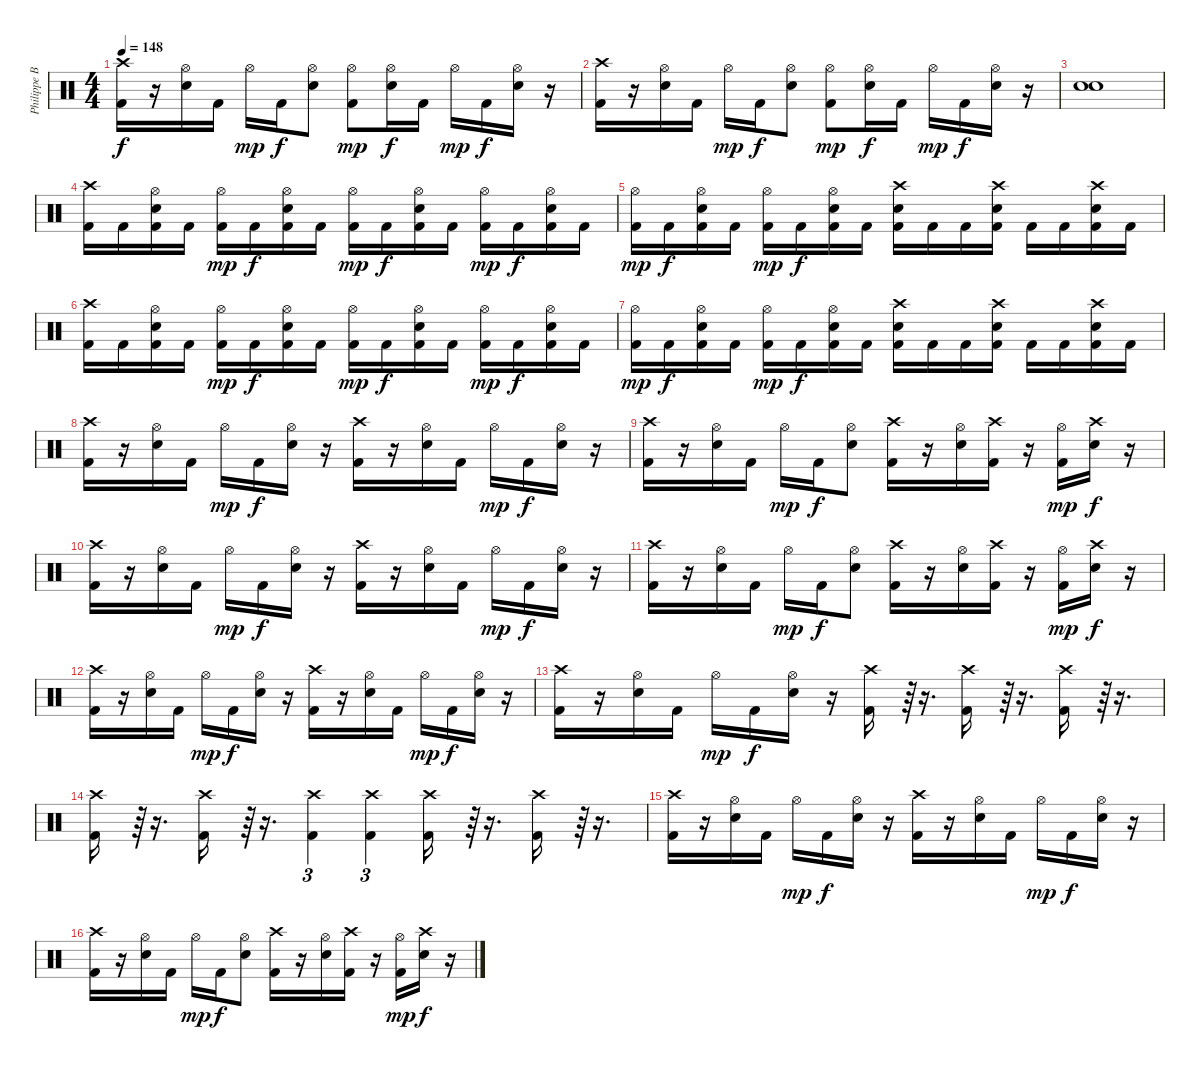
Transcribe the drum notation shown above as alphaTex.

\track ("Philippe Borda" "Philippe B") {instrument percussion}
\staff {score}
\articulation defaults
\ts (4 4)
\tempo 148
\clef neutral
\ks c
("Crash high (hit)" "Kick (hit) 2").16{dy f} r.16 ("Snare (hit) 2" "Hi-Hat (open)").16 "Kick (hit) 2".16 "Hi-Hat (open)".16{dy mp} "Kick (hit) 2".16{dy f} ("Snare (hit) 2" "Hi-Hat (open)").8 ("Kick (hit) 2" "Hi-Hat (open)").8{dy mp} ("Snare (hit) 2" "Hi-Hat (open)").16{dy f} "Kick (hit) 2".16 "Hi-Hat (open)".16{dy mp} "Kick (hit) 2".16{dy f} ("Snare (hit) 2" "Hi-Hat (open)").16 r.16 |
("Crash high (hit)" "Kick (hit) 2").16 r.16 ("Snare (hit) 2" "Hi-Hat (open)").16 "Kick (hit) 2".16 "Hi-Hat (open)".16{dy mp} "Kick (hit) 2".16{dy f} ("Snare (hit) 2" "Hi-Hat (open)").8 ("Kick (hit) 2" "Hi-Hat (open)").8{dy mp} ("Snare (hit) 2" "Hi-Hat (open)").16{dy f} "Kick (hit) 2".16 "Hi-Hat (open)".16{dy mp} "Kick (hit) 2".16{dy f} ("Snare (hit) 2" "Hi-Hat (open)").16 r.16 |
("Snare (hit) 2" "Snare (hit) 2").1 |
("Crash high (hit)" "Kick (hit) 2").16 "Kick (hit) 2".16 ("Kick (hit) 2" "Snare (hit) 2" "Hi-Hat (open)").16 "Kick (hit) 2".16 ("Kick (hit) 2" "Hi-Hat (open)").16{dy mp} "Kick (hit) 2".16{dy f} ("Kick (hit) 2" "Snare (hit) 2" "Hi-Hat (open)").16 "Kick (hit) 2".16 ("Kick (hit) 2" "Hi-Hat (open)").16{dy mp} "Kick (hit) 2".16{dy f} ("Kick (hit) 2" "Snare (hit) 2" "Hi-Hat (open)").16 "Kick (hit) 2".16 ("Kick (hit) 2" "Hi-Hat (open)").16{dy mp} "Kick (hit) 2".16{dy f} ("Kick (hit) 2" "Snare (hit) 2" "Hi-Hat (open)").16 "Kick (hit) 2".16 |
("Kick (hit) 2" "Hi-Hat (open)").16{dy mp} "Kick (hit) 2".16{dy f} ("Kick (hit) 2" "Snare (hit) 2" "Hi-Hat (open)").16 "Kick (hit) 2".16 ("Kick (hit) 2" "Hi-Hat (open)").16{dy mp} "Kick (hit) 2".16{dy f} ("Kick (hit) 2" "Hi-Hat (open)" "Snare (hit) 2").16 "Kick (hit) 2".16 ("Crash high (hit)" "Kick (hit) 2" "Snare (hit) 2").16 "Kick (hit) 2".16 "Kick (hit) 2".16 ("Crash high (hit)" "Kick (hit) 2" "Snare (hit) 2").16 "Kick (hit) 2".16 "Kick (hit) 2".16 ("Crash high (hit)" "Kick (hit) 2" "Snare (hit) 2").16 "Kick (hit) 2".16 |
("Crash high (hit)" "Kick (hit) 2").16 "Kick (hit) 2".16 ("Kick (hit) 2" "Snare (hit) 2" "Hi-Hat (open)").16 "Kick (hit) 2".16 ("Kick (hit) 2" "Hi-Hat (open)").16{dy mp} "Kick (hit) 2".16{dy f} ("Kick (hit) 2" "Snare (hit) 2" "Hi-Hat (open)").16 "Kick (hit) 2".16 ("Kick (hit) 2" "Hi-Hat (open)").16{dy mp} "Kick (hit) 2".16{dy f} ("Kick (hit) 2" "Snare (hit) 2" "Hi-Hat (open)").16 "Kick (hit) 2".16 ("Kick (hit) 2" "Hi-Hat (open)").16{dy mp} "Kick (hit) 2".16{dy f} ("Kick (hit) 2" "Snare (hit) 2" "Hi-Hat (open)").16 "Kick (hit) 2".16 |
("Kick (hit) 2" "Hi-Hat (open)").16{dy mp} "Kick (hit) 2".16{dy f} ("Kick (hit) 2" "Snare (hit) 2" "Hi-Hat (open)").16 "Kick (hit) 2".16 ("Kick (hit) 2" "Hi-Hat (open)").16{dy mp} "Kick (hit) 2".16{dy f} ("Kick (hit) 2" "Hi-Hat (open)" "Snare (hit) 2").16 "Kick (hit) 2".16 ("Crash high (hit)" "Kick (hit) 2" "Snare (hit) 2").16 "Kick (hit) 2".16 "Kick (hit) 2".16 ("Crash high (hit)" "Kick (hit) 2" "Snare (hit) 2").16 "Kick (hit) 2".16 "Kick (hit) 2".16 ("Crash high (hit)" "Kick (hit) 2" "Snare (hit) 2").16 "Kick (hit) 2".16 |
("Crash high (hit)" "Kick (hit) 2").16 r.16 ("Hi-Hat (open)" "Snare (hit) 2").16 "Kick (hit) 2".16 "Hi-Hat (open)".16{dy mp} "Kick (hit) 2".16{dy f} ("Hi-Hat (open)" "Snare (hit) 2").16 r.16 ("Crash high (hit)" "Kick (hit) 2").16 r.16 ("Hi-Hat (open)" "Snare (hit) 2").16 "Kick (hit) 2".16 "Hi-Hat (open)".16{dy mp} "Kick (hit) 2".16{dy f} ("Hi-Hat (open)" "Snare (hit) 2").16 r.16 |
("Crash high (hit)" "Kick (hit) 2").16 r.16 ("Hi-Hat (open)" "Snare (hit) 2").16 "Kick (hit) 2".16 "Hi-Hat (open)".16{dy mp} "Kick (hit) 2".16{dy f} ("Hi-Hat (open)" "Snare (hit) 2").8 ("Crash high (hit)" "Kick (hit) 2").16 r.16 ("Hi-Hat (open)" "Snare (hit) 2").16 ("Crash high (hit)" "Kick (hit) 2").16 r.16 ("Hi-Hat (open)" "Kick (hit) 2").16{dy mp} ("Crash high (hit)" "Snare (hit) 2").16{dy f} r.16 |
("Crash high (hit)" "Kick (hit) 2").16 r.16 ("Hi-Hat (open)" "Snare (hit) 2").16 "Kick (hit) 2".16 "Hi-Hat (open)".16{dy mp} "Kick (hit) 2".16{dy f} ("Hi-Hat (open)" "Snare (hit) 2").16 r.16 ("Crash high (hit)" "Kick (hit) 2").16 r.16 ("Hi-Hat (open)" "Snare (hit) 2").16 "Kick (hit) 2".16 "Hi-Hat (open)".16{dy mp} "Kick (hit) 2".16{dy f} ("Hi-Hat (open)" "Snare (hit) 2").16 r.16 |
("Crash high (hit)" "Kick (hit) 2").16 r.16 ("Hi-Hat (open)" "Snare (hit) 2").16 "Kick (hit) 2".16 "Hi-Hat (open)".16{dy mp} "Kick (hit) 2".16{dy f} ("Hi-Hat (open)" "Snare (hit) 2").8 ("Crash high (hit)" "Kick (hit) 2").16 r.16 ("Hi-Hat (open)" "Snare (hit) 2").16 ("Crash high (hit)" "Kick (hit) 2").16 r.16 ("Hi-Hat (open)" "Kick (hit) 2").16{dy mp} ("Crash high (hit)" "Snare (hit) 2").16{dy f} r.16 |
("Crash high (hit)" "Kick (hit) 2").16 r.16 ("Hi-Hat (open)" "Snare (hit) 2").16 "Kick (hit) 2".16 "Hi-Hat (open)".16{dy mp} "Kick (hit) 2".16{dy f} ("Hi-Hat (open)" "Snare (hit) 2").16 r.16 ("Crash high (hit)" "Kick (hit) 2").16 r.16 ("Hi-Hat (open)" "Snare (hit) 2").16 "Kick (hit) 2".16 "Hi-Hat (open)".16{dy mp} "Kick (hit) 2".16{dy f} ("Hi-Hat (open)" "Snare (hit) 2").16 r.16 |
("Crash high (hit)" "Kick (hit) 2").16 r.16 ("Snare (hit) 2" "Hi-Hat (open)").16 "Kick (hit) 2".16 "Hi-Hat (open)".16{dy mp} "Kick (hit) 2".16{dy f} ("Snare (hit) 2" "Hi-Hat (open)").16 r.16 ("Crash high (hit)" "Kick (hit) 2").16 r.64{tu (3 2)} r.16{d} ("Crash high (hit)" "Kick (hit) 2").16 r.64{tu (3 2)} r.16{d} ("Crash high (hit)" "Kick (hit) 2").16 r.64{tu (3 2)} r.16{d} |
("Crash high (hit)" "Kick (hit) 2").16 r.64{tu (3 2)} r.16{d} ("Crash high (hit)" "Kick (hit) 2").16 r.64{tu (3 2)} r.16{d} ("Crash high (hit)" "Kick (hit) 2").4{tu (3 2)} ("Crash high (hit)" "Kick (hit) 2").4{tu (3 2)} ("Crash high (hit)" "Kick (hit) 2").16 r.64{tu (3 2)} r.16{d} ("Crash high (hit)" "Kick (hit) 2").16 r.64{tu (3 2)} r.16{d} |
("Crash high (hit)" "Kick (hit) 2").16 r.16 ("Hi-Hat (open)" "Snare (hit) 2").16 "Kick (hit) 2".16 "Hi-Hat (open)".16{dy mp} "Kick (hit) 2".16{dy f} ("Hi-Hat (open)" "Snare (hit) 2").16 r.16 ("Crash high (hit)" "Kick (hit) 2").16 r.16 ("Hi-Hat (open)" "Snare (hit) 2").16 "Kick (hit) 2".16 "Hi-Hat (open)".16{dy mp} "Kick (hit) 2".16{dy f} ("Hi-Hat (open)" "Snare (hit) 2").16 r.16 |
("Crash high (hit)" "Kick (hit) 2").16 r.16 ("Hi-Hat (open)" "Snare (hit) 2").16 "Kick (hit) 2".16 "Hi-Hat (open)".16{dy mp} "Kick (hit) 2".16{dy f} ("Hi-Hat (open)" "Snare (hit) 2").8 ("Crash high (hit)" "Kick (hit) 2").16 r.16 ("Hi-Hat (open)" "Snare (hit) 2").16 ("Crash high (hit)" "Kick (hit) 2").16 r.16 ("Hi-Hat (open)" "Kick (hit) 2").16{dy mp} ("Crash high (hit)" "Snare (hit) 2").16{dy f} r.16
